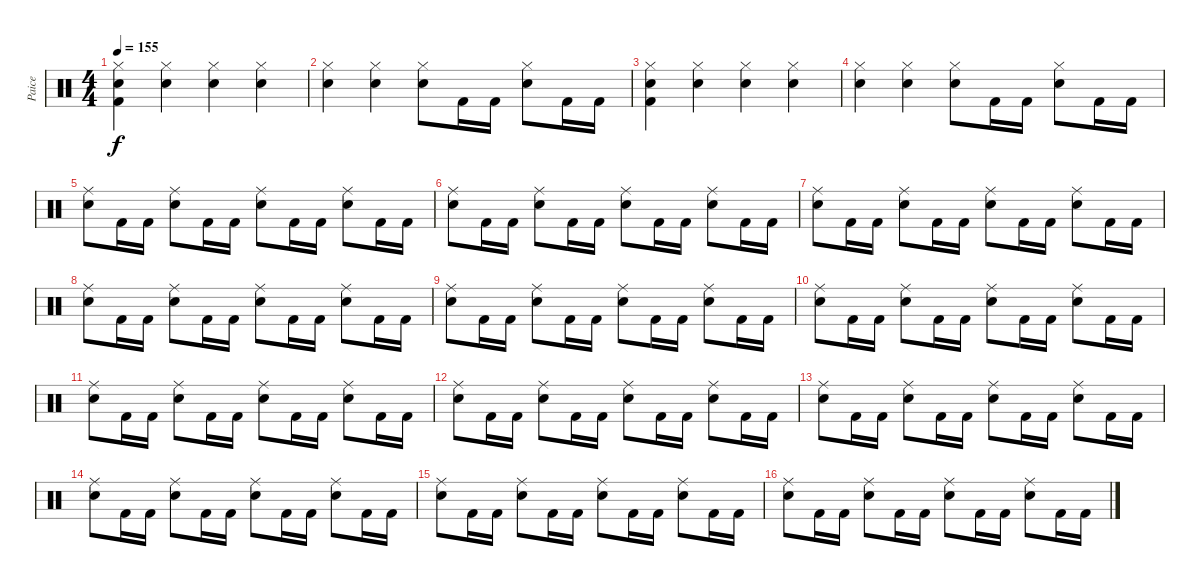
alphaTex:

\track ("Paice" "Paice") {instrument percussion}
\staff {score}
\articulation defaults
\ts (4 4)
\tempo 155
\clef neutral
\ks c
("Hi-Hat (closed)" "Snare (hit) 2" "Kick (hit) 2").4{dy f} ("Hi-Hat (closed)" "Snare (hit) 2").4 ("Hi-Hat (closed)" "Snare (hit) 2").4 ("Hi-Hat (closed)" "Snare (hit) 2").4 |
("Hi-Hat (closed)" "Snare (hit) 2").4 ("Hi-Hat (closed)" "Snare (hit) 2").4 ("Hi-Hat (closed)" "Snare (hit) 2").8 "Kick (hit) 2".16 "Kick (hit) 2".16 ("Hi-Hat (closed)" "Snare (hit) 2").8 "Kick (hit) 2".16 "Kick (hit) 2".16 |
("Hi-Hat (closed)" "Snare (hit) 2" "Kick (hit) 2").4 ("Hi-Hat (closed)" "Snare (hit) 2").4 ("Hi-Hat (closed)" "Snare (hit) 2").4 ("Hi-Hat (closed)" "Snare (hit) 2").4 |
("Hi-Hat (closed)" "Snare (hit) 2").4 ("Hi-Hat (closed)" "Snare (hit) 2").4 ("Hi-Hat (closed)" "Snare (hit) 2").8 "Kick (hit) 2".16 "Kick (hit) 2".16 ("Hi-Hat (closed)" "Snare (hit) 2").8 "Kick (hit) 2".16 "Kick (hit) 2".16 |
("Ride (middle)" "Snare (hit) 2").8 "Kick (hit) 2".16 "Kick (hit) 2".16 ("Ride (middle)" "Snare (hit) 2").8 "Kick (hit) 2".16 "Kick (hit) 2".16 ("Ride (middle)" "Snare (hit) 2").8 "Kick (hit) 2".16 "Kick (hit) 2".16 ("Ride (middle)" "Snare (hit) 2").8 "Kick (hit) 2".16 "Kick (hit) 2".16 |
("Ride (middle)" "Snare (hit) 2").8 "Kick (hit) 2".16 "Kick (hit) 2".16 ("Ride (middle)" "Snare (hit) 2").8 "Kick (hit) 2".16 "Kick (hit) 2".16 ("Ride (middle)" "Snare (hit) 2").8 "Kick (hit) 2".16 "Kick (hit) 2".16 ("Ride (middle)" "Snare (hit) 2").8 "Kick (hit) 2".16 "Kick (hit) 2".16 |
("Ride (middle)" "Snare (hit) 2").8 "Kick (hit) 2".16 "Kick (hit) 2".16 ("Ride (middle)" "Snare (hit) 2").8 "Kick (hit) 2".16 "Kick (hit) 2".16 ("Ride (middle)" "Snare (hit) 2").8 "Kick (hit) 2".16 "Kick (hit) 2".16 ("Ride (middle)" "Snare (hit) 2").8 "Kick (hit) 2".16 "Kick (hit) 2".16 |
("Ride (middle)" "Snare (hit) 2").8 "Kick (hit) 2".16 "Kick (hit) 2".16 ("Ride (middle)" "Snare (hit) 2").8 "Kick (hit) 2".16 "Kick (hit) 2".16 ("Ride (middle)" "Snare (hit) 2").8 "Kick (hit) 2".16 "Kick (hit) 2".16 ("Ride (middle)" "Snare (hit) 2").8 "Kick (hit) 2".16 "Kick (hit) 2".16 |
("Ride (middle)" "Snare (hit) 2").8 "Kick (hit) 2".16 "Kick (hit) 2".16 ("Ride (middle)" "Snare (hit) 2").8 "Kick (hit) 2".16 "Kick (hit) 2".16 ("Ride (middle)" "Snare (hit) 2").8 "Kick (hit) 2".16 "Kick (hit) 2".16 ("Ride (middle)" "Snare (hit) 2").8 "Kick (hit) 2".16 "Kick (hit) 2".16 |
("Ride (middle)" "Snare (hit) 2").8 "Kick (hit) 2".16 "Kick (hit) 2".16 ("Ride (middle)" "Snare (hit) 2").8 "Kick (hit) 2".16 "Kick (hit) 2".16 ("Ride (middle)" "Snare (hit) 2").8 "Kick (hit) 2".16 "Kick (hit) 2".16 ("Ride (middle)" "Snare (hit) 2").8 "Kick (hit) 2".16 "Kick (hit) 2".16 |
("Ride (middle)" "Snare (hit) 2").8 "Kick (hit) 2".16 "Kick (hit) 2".16 ("Ride (middle)" "Snare (hit) 2").8 "Kick (hit) 2".16 "Kick (hit) 2".16 ("Ride (middle)" "Snare (hit) 2").8 "Kick (hit) 2".16 "Kick (hit) 2".16 ("Ride (middle)" "Snare (hit) 2").8 "Kick (hit) 2".16 "Kick (hit) 2".16 |
("Ride (middle)" "Snare (hit) 2").8 "Kick (hit) 2".16 "Kick (hit) 2".16 ("Ride (middle)" "Snare (hit) 2").8 "Kick (hit) 2".16 "Kick (hit) 2".16 ("Ride (middle)" "Snare (hit) 2").8 "Kick (hit) 2".16 "Kick (hit) 2".16 ("Ride (middle)" "Snare (hit) 2").8 "Kick (hit) 2".16 "Kick (hit) 2".16 |
("Ride (middle)" "Snare (hit) 2").8 "Kick (hit) 2".16 "Kick (hit) 2".16 ("Ride (middle)" "Snare (hit) 2").8 "Kick (hit) 2".16 "Kick (hit) 2".16 ("Ride (middle)" "Snare (hit) 2").8 "Kick (hit) 2".16 "Kick (hit) 2".16 ("Ride (middle)" "Snare (hit) 2").8 "Kick (hit) 2".16 "Kick (hit) 2".16 |
("Ride (middle)" "Snare (hit) 2").8 "Kick (hit) 2".16 "Kick (hit) 2".16 ("Ride (middle)" "Snare (hit) 2").8 "Kick (hit) 2".16 "Kick (hit) 2".16 ("Ride (middle)" "Snare (hit) 2").8 "Kick (hit) 2".16 "Kick (hit) 2".16 ("Ride (middle)" "Snare (hit) 2").8 "Kick (hit) 2".16 "Kick (hit) 2".16 |
("Ride (middle)" "Snare (hit) 2").8 "Kick (hit) 2".16 "Kick (hit) 2".16 ("Ride (middle)" "Snare (hit) 2").8 "Kick (hit) 2".16 "Kick (hit) 2".16 ("Ride (middle)" "Snare (hit) 2").8 "Kick (hit) 2".16 "Kick (hit) 2".16 ("Ride (middle)" "Snare (hit) 2").8 "Kick (hit) 2".16 "Kick (hit) 2".16 |
("Ride (middle)" "Snare (hit) 2").8 "Kick (hit) 2".16 "Kick (hit) 2".16 ("Ride (middle)" "Snare (hit) 2").8 "Kick (hit) 2".16 "Kick (hit) 2".16 ("Ride (middle)" "Snare (hit) 2").8 "Kick (hit) 2".16 "Kick (hit) 2".16 ("Ride (middle)" "Snare (hit) 2").8 "Kick (hit) 2".16 "Kick (hit) 2".16
